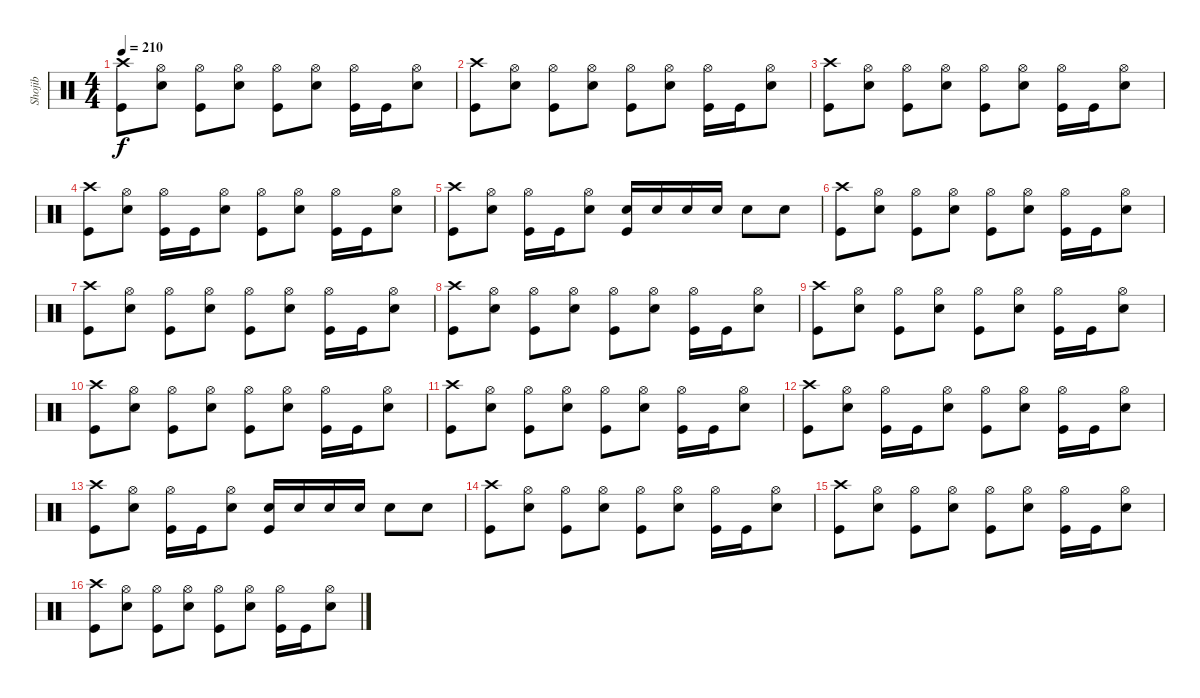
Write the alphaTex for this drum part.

\track ("Shojib" "Shojib") {instrument percussion}
\staff {score}
\articulation defaults
\ts (4 4)
\tempo 210
\clef neutral
\ks c
("Crash high (hit)" "Kick (hit)").8{dy f} ("Hi-Hat (open)" "Electric Snare (hit)").8 ("Hi-Hat (open)" "Kick (hit)").8 ("Hi-Hat (open)" "Electric Snare (hit)").8 ("Hi-Hat (open)" "Kick (hit)").8 ("Hi-Hat (open)" "Electric Snare (hit)").8 ("Hi-Hat (open)" "Kick (hit)").16 "Kick (hit)".16 ("Hi-Hat (open)" "Electric Snare (hit)").8 |
("Crash high (hit)" "Kick (hit)").8 ("Hi-Hat (open)" "Electric Snare (hit)").8 ("Hi-Hat (open)" "Kick (hit)").8 ("Hi-Hat (open)" "Electric Snare (hit)").8 ("Hi-Hat (open)" "Kick (hit)").8 ("Hi-Hat (open)" "Electric Snare (hit)").8 ("Hi-Hat (open)" "Kick (hit)").16 "Kick (hit)".16 ("Hi-Hat (open)" "Electric Snare (hit)").8 |
("Crash high (hit)" "Kick (hit)").8 ("Hi-Hat (open)" "Electric Snare (hit)").8 ("Hi-Hat (open)" "Kick (hit)").8 ("Hi-Hat (open)" "Electric Snare (hit)").8 ("Hi-Hat (open)" "Kick (hit)").8 ("Hi-Hat (open)" "Electric Snare (hit)").8 ("Hi-Hat (open)" "Kick (hit)").16 "Kick (hit)".16 ("Hi-Hat (open)" "Electric Snare (hit)").8 |
("Crash high (hit)" "Kick (hit)").8 ("Hi-Hat (open)" "Electric Snare (hit)").8 ("Hi-Hat (open)" "Kick (hit)").16 "Kick (hit)".16 ("Hi-Hat (open)" "Electric Snare (hit)").8 ("Hi-Hat (open)" "Kick (hit)").8 ("Hi-Hat (open)" "Electric Snare (hit)").8 ("Hi-Hat (open)" "Kick (hit)").16 "Kick (hit)".16 ("Hi-Hat (open)" "Electric Snare (hit)").8 |
("Crash high (hit)" "Kick (hit)").8 ("Hi-Hat (open)" "Electric Snare (hit)").8 ("Hi-Hat (open)" "Kick (hit)").16 "Kick (hit)".16 ("Hi-Hat (open)" "Electric Snare (hit)").8 ("Electric Snare (hit)" "Kick (hit)").16 "Electric Snare (hit)".16 "Electric Snare (hit)".16 "Electric Snare (hit)".16 "Electric Snare (hit)".8 "Electric Snare (hit)".8 |
("Crash high (hit)" "Kick (hit)").8 ("Hi-Hat (open)" "Electric Snare (hit)").8 ("Hi-Hat (open)" "Kick (hit)").8 ("Hi-Hat (open)" "Electric Snare (hit)").8 ("Hi-Hat (open)" "Kick (hit)").8 ("Hi-Hat (open)" "Electric Snare (hit)").8 ("Hi-Hat (open)" "Kick (hit)").16 "Kick (hit)".16 ("Hi-Hat (open)" "Electric Snare (hit)").8 |
("Crash high (hit)" "Kick (hit)").8 ("Hi-Hat (open)" "Electric Snare (hit)").8 ("Hi-Hat (open)" "Kick (hit)").8 ("Hi-Hat (open)" "Electric Snare (hit)").8 ("Hi-Hat (open)" "Kick (hit)").8 ("Hi-Hat (open)" "Electric Snare (hit)").8 ("Hi-Hat (open)" "Kick (hit)").16 "Kick (hit)".16 ("Hi-Hat (open)" "Electric Snare (hit)").8 |
("Crash high (hit)" "Kick (hit)").8 ("Hi-Hat (open)" "Electric Snare (hit)").8 ("Hi-Hat (open)" "Kick (hit)").8 ("Hi-Hat (open)" "Electric Snare (hit)").8 ("Hi-Hat (open)" "Kick (hit)").8 ("Hi-Hat (open)" "Electric Snare (hit)").8 ("Hi-Hat (open)" "Kick (hit)").16 "Kick (hit)".16 ("Hi-Hat (open)" "Electric Snare (hit)").8 |
("Crash high (hit)" "Kick (hit)").8 ("Hi-Hat (open)" "Electric Snare (hit)").8 ("Hi-Hat (open)" "Kick (hit)").8 ("Hi-Hat (open)" "Electric Snare (hit)").8 ("Hi-Hat (open)" "Kick (hit)").8 ("Hi-Hat (open)" "Electric Snare (hit)").8 ("Hi-Hat (open)" "Kick (hit)").16 "Kick (hit)".16 ("Hi-Hat (open)" "Electric Snare (hit)").8 |
("Crash high (hit)" "Kick (hit)").8 ("Hi-Hat (open)" "Electric Snare (hit)").8 ("Hi-Hat (open)" "Kick (hit)").8 ("Hi-Hat (open)" "Electric Snare (hit)").8 ("Hi-Hat (open)" "Kick (hit)").8 ("Hi-Hat (open)" "Electric Snare (hit)").8 ("Hi-Hat (open)" "Kick (hit)").16 "Kick (hit)".16 ("Hi-Hat (open)" "Electric Snare (hit)").8 |
("Crash high (hit)" "Kick (hit)").8 ("Hi-Hat (open)" "Electric Snare (hit)").8 ("Hi-Hat (open)" "Kick (hit)").8 ("Hi-Hat (open)" "Electric Snare (hit)").8 ("Hi-Hat (open)" "Kick (hit)").8 ("Hi-Hat (open)" "Electric Snare (hit)").8 ("Hi-Hat (open)" "Kick (hit)").16 "Kick (hit)".16 ("Hi-Hat (open)" "Electric Snare (hit)").8 |
("Crash high (hit)" "Kick (hit)").8 ("Hi-Hat (open)" "Electric Snare (hit)").8 ("Hi-Hat (open)" "Kick (hit)").16 "Kick (hit)".16 ("Hi-Hat (open)" "Electric Snare (hit)").8 ("Hi-Hat (open)" "Kick (hit)").8 ("Hi-Hat (open)" "Electric Snare (hit)").8 ("Hi-Hat (open)" "Kick (hit)").16 "Kick (hit)".16 ("Hi-Hat (open)" "Electric Snare (hit)").8 |
("Crash high (hit)" "Kick (hit)").8 ("Hi-Hat (open)" "Electric Snare (hit)").8 ("Hi-Hat (open)" "Kick (hit)").16 "Kick (hit)".16 ("Hi-Hat (open)" "Electric Snare (hit)").8 ("Electric Snare (hit)" "Kick (hit)").16 "Electric Snare (hit)".16 "Electric Snare (hit)".16 "Electric Snare (hit)".16 "Electric Snare (hit)".8 "Electric Snare (hit)".8 |
("Crash high (hit)" "Kick (hit)").8 ("Hi-Hat (open)" "Electric Snare (hit)").8 ("Hi-Hat (open)" "Kick (hit)").8 ("Hi-Hat (open)" "Electric Snare (hit)").8 ("Hi-Hat (open)" "Kick (hit)").8 ("Hi-Hat (open)" "Electric Snare (hit)").8 ("Hi-Hat (open)" "Kick (hit)").16 "Kick (hit)".16 ("Hi-Hat (open)" "Electric Snare (hit)").8 |
("Crash high (hit)" "Kick (hit)").8 ("Hi-Hat (open)" "Electric Snare (hit)").8 ("Hi-Hat (open)" "Kick (hit)").8 ("Hi-Hat (open)" "Electric Snare (hit)").8 ("Hi-Hat (open)" "Kick (hit)").8 ("Hi-Hat (open)" "Electric Snare (hit)").8 ("Hi-Hat (open)" "Kick (hit)").16 "Kick (hit)".16 ("Hi-Hat (open)" "Electric Snare (hit)").8 |
("Crash high (hit)" "Kick (hit)").8 ("Hi-Hat (open)" "Electric Snare (hit)").8 ("Hi-Hat (open)" "Kick (hit)").8 ("Hi-Hat (open)" "Electric Snare (hit)").8 ("Hi-Hat (open)" "Kick (hit)").8 ("Hi-Hat (open)" "Electric Snare (hit)").8 ("Hi-Hat (open)" "Kick (hit)").16 "Kick (hit)".16 ("Hi-Hat (open)" "Electric Snare (hit)").8
